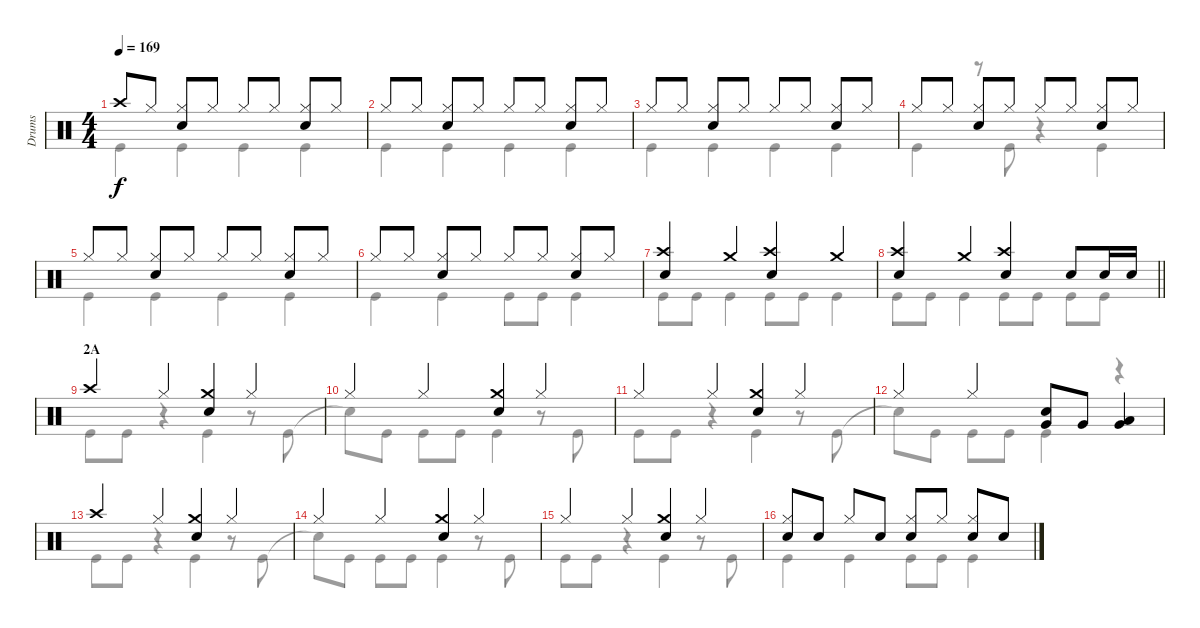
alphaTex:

\track ("Drums" "Drums") {instrument percussion}
\staff {score}
\articulation defaults
\voice
\ts (4 4)
\tempo 169
\clef neutral
\ks c "Crash high (hit)".8{dy f} "Hi-Hat (closed)".8
("Hi-Hat (closed)" "Snare (hit) 2").8 "Hi-Hat (closed)".8 "Hi-Hat (closed)".8 "Hi-Hat (closed)".8 ("Hi-Hat (closed)" "Snare (hit) 2").8 "Hi-Hat (closed)".8 |
"Hi-Hat (closed)".8 "Hi-Hat (closed)".8 ("Hi-Hat (closed)" "Snare (hit) 2").8 "Hi-Hat (closed)".8 "Hi-Hat (closed)".8 "Hi-Hat (closed)".8 ("Hi-Hat (closed)" "Snare (hit) 2").8 "Hi-Hat (closed)".8 |
"Hi-Hat (closed)".8 "Hi-Hat (closed)".8 ("Hi-Hat (closed)" "Snare (hit) 2").8 "Hi-Hat (closed)".8 "Hi-Hat (closed)".8 "Hi-Hat (closed)".8 ("Hi-Hat (closed)" "Snare (hit) 2").8 "Hi-Hat (closed)".8 |
"Hi-Hat (closed)".8 "Hi-Hat (closed)".8 ("Hi-Hat (closed)" "Snare (hit) 2").8 "Hi-Hat (closed)".8 "Hi-Hat (closed)".8 "Hi-Hat (closed)".8 ("Hi-Hat (closed)" "Snare (hit) 2").8 "Hi-Hat (closed)".8 |
"Hi-Hat (closed)".8 "Hi-Hat (closed)".8 ("Hi-Hat (closed)" "Snare (hit) 2").8 "Hi-Hat (closed)".8 "Hi-Hat (closed)".8 "Hi-Hat (closed)".8 ("Hi-Hat (closed)" "Snare (hit) 2").8 "Hi-Hat (closed)".8 |
"Hi-Hat (closed)".8 "Hi-Hat (closed)".8 ("Hi-Hat (closed)" "Snare (hit) 2").8 "Hi-Hat (closed)".8 "Hi-Hat (closed)".8 "Hi-Hat (closed)".8 ("Hi-Hat (closed)" "Snare (hit) 2").8 "Hi-Hat (closed)".8 |
("Crash high (hit)" "Snare (hit) 2").4 "Crash medium (hit)".4 ("Crash high (hit)" "Snare (hit) 2").4 "Crash medium (hit)".4 |
\barLineRight lightlight
("Crash high (hit)" "Snare (hit) 2").4 "Crash medium (hit)".4 ("Crash high (hit)" "Snare (hit) 2").4 "Snare (hit) 2".8 "Snare (hit) 2".16 "Snare (hit) 2".16 |
\section ("" "2A")
"Crash high (hit)".4 "Hi-Hat (closed)".4 ("Crash medium (hit)" "Snare (hit) 2").4 "Hi-Hat (closed)".4 |
"Hi-Hat (closed)".4 "Hi-Hat (closed)".4 ("Crash medium (hit)" "Snare (hit) 2").4 "Hi-Hat (closed)".4 |
"Hi-Hat (closed)".4 "Hi-Hat (closed)".4 ("Crash medium (hit)" "Snare (hit) 2").4 "Hi-Hat (closed)".4 |
"Hi-Hat (closed)".4 "Hi-Hat (closed)".4 ("Snare (hit) 2" "Very Low Tom (hit)").8 "Very Low Tom (hit)".8 ("Very Low Tom (hit)" "Low Tom (hit)").4 |
"Crash high (hit)".4 "Hi-Hat (closed)".4 ("Crash medium (hit)" "Snare (hit) 2").4 "Hi-Hat (closed)".4 |
"Hi-Hat (closed)".4 "Hi-Hat (closed)".4 ("Crash medium (hit)" "Snare (hit) 2").4 "Hi-Hat (closed)".4 |
"Hi-Hat (closed)".4 "Hi-Hat (closed)".4 ("Crash medium (hit)" "Snare (hit) 2").4 "Hi-Hat (closed)".4 |
("Hi-Hat (closed)" "Snare (hit) 2").8 "Snare (hit) 2".8 "Hi-Hat (closed)".8 "Snare (hit) 2".8 ("Hi-Hat (closed)" "Snare (hit) 2").8 "Hi-Hat (closed)".8 ("Hi-Hat (closed)" "Snare (hit) 2").8 "Snare (hit) 2".8
\voice
\clef neutral
\ottava regular
\simile none
\ks c "Kick (hit)".4{dy f} "Kick (hit)".4 "Kick (hit)".4 "Kick (hit)".4
|
"Kick (hit)".4 "Kick (hit)".4 "Kick (hit)".4 "Kick (hit)".4 |
"Kick (hit)".4 "Kick (hit)".4 "Kick (hit)".4 "Kick (hit)".4 |
"Kick (hit)".4 r.8 "Kick (hit)".8 r.4 "Kick (hit)".4 |
"Kick (hit)".4 "Kick (hit)".4 "Kick (hit)".4 "Kick (hit)".4 |
"Kick (hit)".4 "Kick (hit)".4 "Kick (hit)".8 "Kick (hit)".8 "Kick (hit)".4 |
"Kick (hit)".8 "Kick (hit)".8 "Kick (hit)".4 "Kick (hit)".8 "Kick (hit)".8 "Kick (hit)".4 |
\barLineRight lightlight "Kick (hit)".8 "Kick (hit)".8 "Kick (hit)".4 "Kick (hit)".8 "Kick (hit)".8 "Kick (hit)".8 "Kick (hit)".8
|
"Kick (hit)".8 "Kick (hit)".8 r.4 "Kick (hit)".4 r.8 "Kick (hit)".8 |
"Snare (hit)"{t}.8 "Kick (hit)".8 "Kick (hit)".8 "Kick (hit)".8 "Kick (hit)".4 r.8 "Kick (hit)".8 |
"Kick (hit)".8 "Kick (hit)".8 r.4 "Kick (hit)".4 r.8 "Kick (hit)".8 |
"Snare (hit)"{t}.8 "Kick (hit)".8 "Kick (hit)".8 "Kick (hit)".8 "Kick (hit)".4 r.4 |
"Kick (hit)".8 "Kick (hit)".8 r.4 "Kick (hit)".4 r.8 "Kick (hit)".8 |
"Snare (hit)"{t}.8 "Kick (hit)".8 "Kick (hit)".8 "Kick (hit)".8 "Kick (hit)".4 r.8 "Kick (hit)".8 |
"Kick (hit)".8 "Kick (hit)".8 r.4 "Kick (hit)".4 r.8 "Kick (hit)".8 |
"Kick (hit)".4 "Kick (hit)".4 "Kick (hit)".8 "Kick (hit)".8 "Kick (hit)".4
